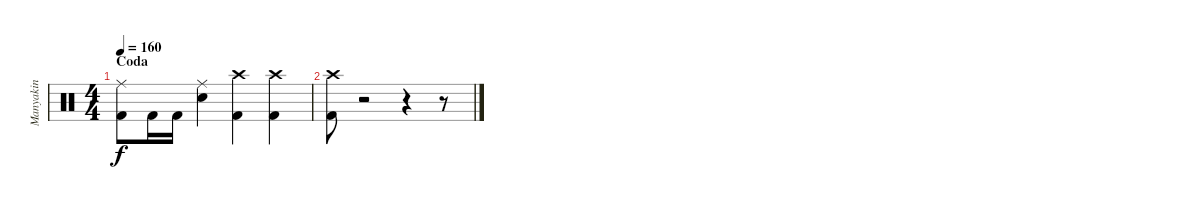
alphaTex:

\track ("Manyakin" "Manyakin") {instrument percussion}
\staff {score}
\articulation defaults
\ts (4 4)
\section ("" "Coda")
\tempo 160
\clef neutral
\ks c
("Kick (hit) 2" "Ride (middle)").8{dy f} "Kick (hit) 2".16 "Kick (hit) 2".16 ("Snare (hit) 2" "Ride (middle)").4 ("Kick (hit) 2" "Crash high (hit)").4 ("Kick (hit) 2" "Crash high (hit)").4 |
("Kick (hit) 2" "Crash high (hit)").8 r.2 r.4 r.8
